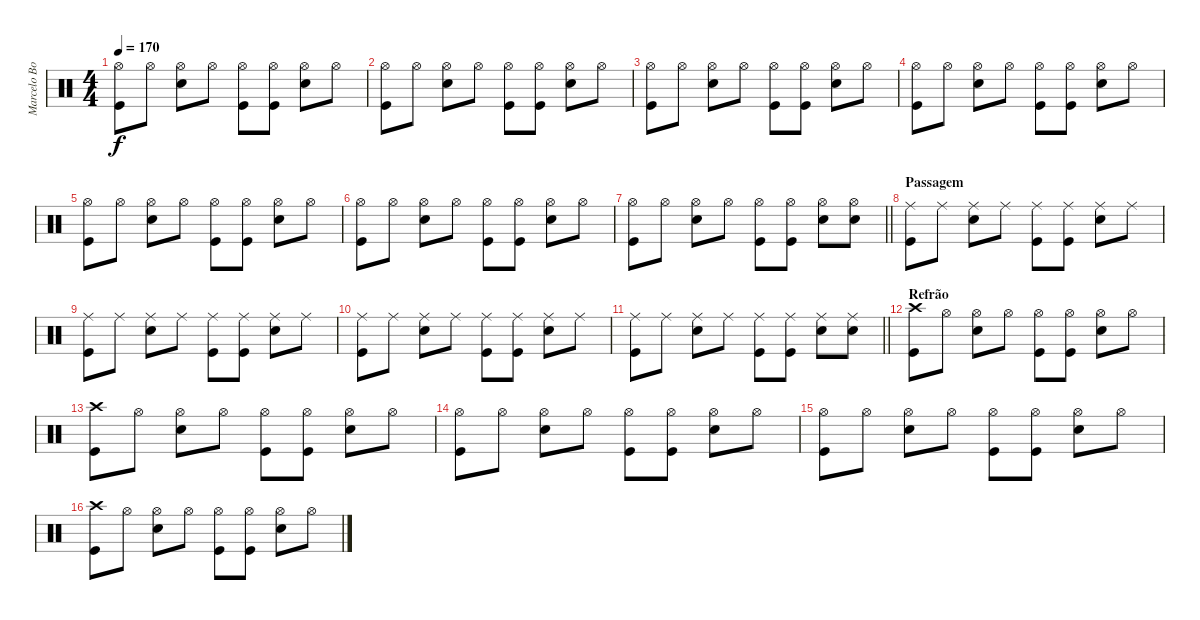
\track ("Marcelo Bonfá" "Marcelo Bo") {instrument percussion}
\staff {score}
\articulation defaults
\ts (4 4)
\tempo 170
\clef neutral
\ks c
("Hi-Hat (open)" "Kick (hit)").8{dy f} "Hi-Hat (open)".8 ("Hi-Hat (open)" "Snare (hit) 2").8 "Hi-Hat (open)".8 ("Hi-Hat (open)" "Kick (hit)").8 ("Hi-Hat (open)" "Kick (hit)").8 ("Hi-Hat (open)" "Snare (hit) 2").8 "Hi-Hat (open)".8 |
("Hi-Hat (open)" "Kick (hit)").8 "Hi-Hat (open)".8 ("Hi-Hat (open)" "Snare (hit) 2").8 "Hi-Hat (open)".8 ("Hi-Hat (open)" "Kick (hit)").8 ("Hi-Hat (open)" "Kick (hit)").8 ("Hi-Hat (open)" "Snare (hit) 2").8 "Hi-Hat (open)".8 |
("Hi-Hat (open)" "Kick (hit)").8 "Hi-Hat (open)".8 ("Hi-Hat (open)" "Snare (hit) 2").8 "Hi-Hat (open)".8 ("Hi-Hat (open)" "Kick (hit)").8 ("Hi-Hat (open)" "Kick (hit)").8 ("Hi-Hat (open)" "Snare (hit) 2").8 "Hi-Hat (open)".8 |
("Hi-Hat (open)" "Kick (hit)").8 "Hi-Hat (open)".8 ("Hi-Hat (open)" "Snare (hit) 2").8 "Hi-Hat (open)".8 ("Hi-Hat (open)" "Kick (hit)").8 ("Hi-Hat (open)" "Kick (hit)").8 ("Hi-Hat (open)" "Snare (hit) 2").8 "Hi-Hat (open)".8 |
("Hi-Hat (open)" "Kick (hit)").8 "Hi-Hat (open)".8 ("Hi-Hat (open)" "Snare (hit) 2").8 "Hi-Hat (open)".8 ("Hi-Hat (open)" "Kick (hit)").8 ("Hi-Hat (open)" "Kick (hit)").8 ("Hi-Hat (open)" "Snare (hit) 2").8 "Hi-Hat (open)".8 |
("Hi-Hat (open)" "Kick (hit)").8 "Hi-Hat (open)".8 ("Hi-Hat (open)" "Snare (hit) 2").8 "Hi-Hat (open)".8 ("Hi-Hat (open)" "Kick (hit)").8 ("Hi-Hat (open)" "Kick (hit)").8 ("Hi-Hat (open)" "Snare (hit) 2").8 "Hi-Hat (open)".8 |
\barLineRight lightlight
("Hi-Hat (open)" "Kick (hit)").8 "Hi-Hat (open)".8 ("Hi-Hat (open)" "Snare (hit) 2").8 "Hi-Hat (open)".8 ("Hi-Hat (open)" "Kick (hit)").8 ("Hi-Hat (open)" "Kick (hit)").8 ("Hi-Hat (open)" "Snare (hit) 2").8 ("Hi-Hat (open)" "Snare (hit) 2").8 |
\section ("" "Passagem")
("Ride (middle)" "Kick (hit)").8 "Ride (middle)".8 ("Ride (middle)" "Snare (hit) 2").8 "Ride (middle)".8 ("Ride (middle)" "Kick (hit)").8 ("Ride (middle)" "Kick (hit)").8 ("Ride (middle)" "Snare (hit) 2").8 "Ride (middle)".8 |
("Ride (middle)" "Kick (hit)").8 "Ride (middle)".8 ("Ride (middle)" "Snare (hit) 2").8 "Ride (middle)".8 ("Ride (middle)" "Kick (hit)").8 ("Ride (middle)" "Kick (hit)").8 ("Ride (middle)" "Snare (hit) 2").8 "Ride (middle)".8 |
("Ride (middle)" "Kick (hit)").8 "Ride (middle)".8 ("Ride (middle)" "Snare (hit) 2").8 "Ride (middle)".8 ("Ride (middle)" "Kick (hit)").8 ("Ride (middle)" "Kick (hit)").8 ("Ride (middle)" "Snare (hit) 2").8 "Ride (middle)".8 |
\barLineRight lightlight
("Ride (middle)" "Kick (hit)").8 "Ride (middle)".8 ("Ride (middle)" "Snare (hit) 2").8 "Ride (middle)".8 ("Ride (middle)" "Kick (hit)").8 ("Ride (middle)" "Kick (hit)").8 ("Ride (middle)" "Snare (hit) 2").8 ("Ride (middle)" "Snare (hit) 2").8 |
\section ("" "Refrão")
("Crash high (hit)" "Kick (hit)").8 "Hi-Hat (open)".8 ("Hi-Hat (open)" "Snare (hit) 2").8 "Hi-Hat (open)".8 ("Hi-Hat (open)" "Kick (hit)").8 ("Hi-Hat (open)" "Kick (hit)").8 ("Hi-Hat (open)" "Snare (hit) 2").8 "Hi-Hat (open)".8 |
("Crash high (hit)" "Kick (hit)").8 "Hi-Hat (open)".8 ("Hi-Hat (open)" "Snare (hit) 2").8 "Hi-Hat (open)".8 ("Hi-Hat (open)" "Kick (hit)").8 ("Hi-Hat (open)" "Kick (hit)").8 ("Hi-Hat (open)" "Snare (hit) 2").8 "Hi-Hat (open)".8 |
("Hi-Hat (open)" "Kick (hit)").8 "Hi-Hat (open)".8 ("Hi-Hat (open)" "Snare (hit) 2").8 "Hi-Hat (open)".8 ("Hi-Hat (open)" "Kick (hit)").8 ("Hi-Hat (open)" "Kick (hit)").8 ("Hi-Hat (open)" "Snare (hit) 2").8 "Hi-Hat (open)".8 |
("Hi-Hat (open)" "Kick (hit)").8 "Hi-Hat (open)".8 ("Hi-Hat (open)" "Snare (hit) 2").8 "Hi-Hat (open)".8 ("Hi-Hat (open)" "Kick (hit)").8 ("Hi-Hat (open)" "Kick (hit)").8 ("Hi-Hat (open)" "Snare (hit) 2").8 "Hi-Hat (open)".8 |
("Crash high (hit)" "Kick (hit)").8 "Hi-Hat (open)".8 ("Hi-Hat (open)" "Snare (hit) 2").8 "Hi-Hat (open)".8 ("Hi-Hat (open)" "Kick (hit)").8 ("Hi-Hat (open)" "Kick (hit)").8 ("Hi-Hat (open)" "Snare (hit) 2").8 "Hi-Hat (open)".8
